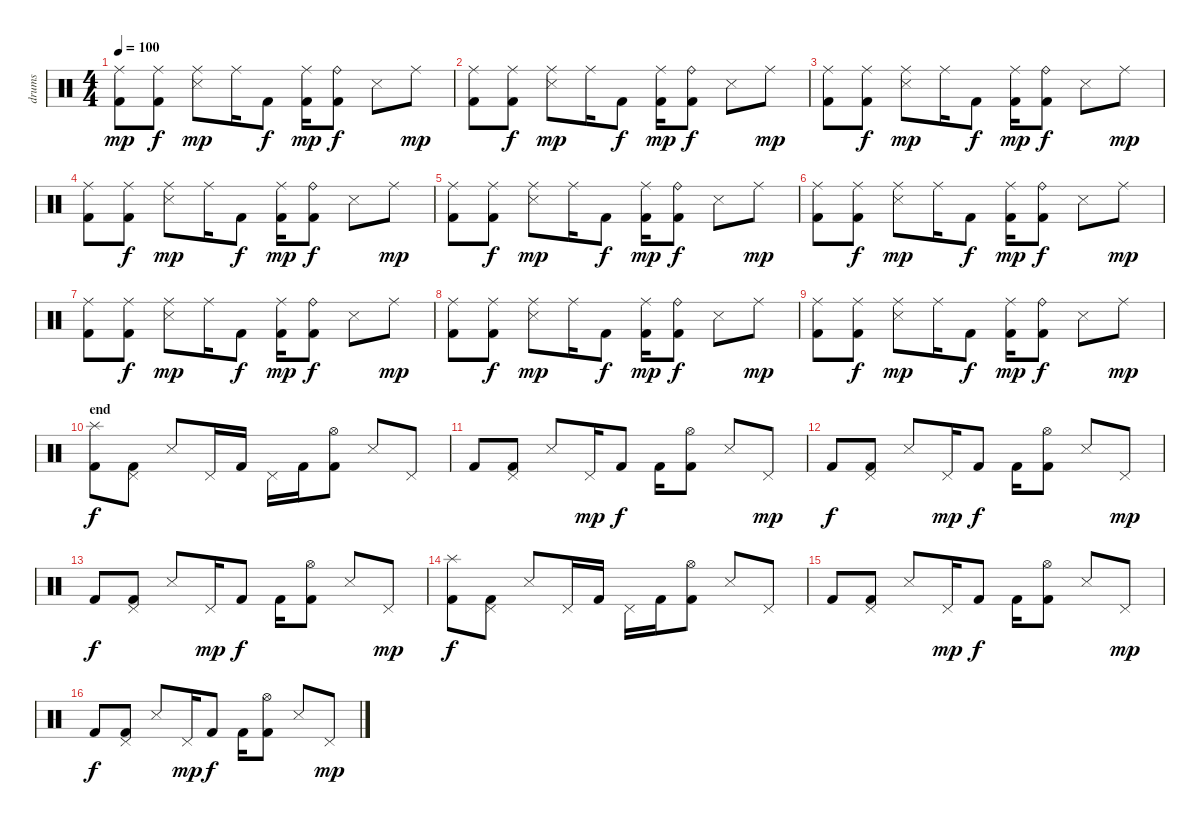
\track ("drums" "drums") {instrument percussion}
\staff {score}
\articulation defaults
\ts (4 4)
\tempo 100
\clef neutral
\ks c
("Ride (middle)" "Kick (hit) 2").8{dy mp} ("Ride (middle)" "Kick (hit) 2").8{dy f} ("Ride (middle)" "Snare (side stick) 3").8{dy mp} "Ride (middle)".16 "Kick (hit) 2".8{dy f} ("Ride (middle)" "Kick (hit) 2").16{dy mp} ("Ride (bell)" "Kick (hit) 2").8{dy f} "Snare (side stick) 3".8 "Ride (middle)".8{dy mp} |
("Ride (middle)" "Kick (hit) 2").8 ("Ride (middle)" "Kick (hit) 2").8{dy f} ("Ride (middle)" "Snare (side stick) 3").8{dy mp} "Ride (middle)".16 "Kick (hit) 2".8{dy f} ("Ride (middle)" "Kick (hit) 2").16{dy mp} ("Ride (bell)" "Kick (hit) 2").8{dy f} "Snare (side stick) 3".8 "Ride (middle)".8{dy mp} |
("Ride (middle)" "Kick (hit) 2").8 ("Ride (middle)" "Kick (hit) 2").8{dy f} ("Ride (middle)" "Snare (side stick) 3").8{dy mp} "Ride (middle)".16 "Kick (hit) 2".8{dy f} ("Ride (middle)" "Kick (hit) 2").16{dy mp} ("Ride (bell)" "Kick (hit) 2").8{dy f} "Snare (side stick) 3".8 "Ride (middle)".8{dy mp} |
("Ride (middle)" "Kick (hit) 2").8 ("Ride (middle)" "Kick (hit) 2").8{dy f} ("Ride (middle)" "Snare (side stick) 3").8{dy mp} "Ride (middle)".16 "Kick (hit) 2".8{dy f} ("Ride (middle)" "Kick (hit) 2").16{dy mp} ("Ride (bell)" "Kick (hit) 2").8{dy f} "Snare (side stick) 3".8 "Ride (middle)".8{dy mp} |
("Ride (middle)" "Kick (hit) 2").8 ("Ride (middle)" "Kick (hit) 2").8{dy f} ("Ride (middle)" "Snare (side stick) 3").8{dy mp} "Ride (middle)".16 "Kick (hit) 2".8{dy f} ("Ride (middle)" "Kick (hit) 2").16{dy mp} ("Ride (bell)" "Kick (hit) 2").8{dy f} "Snare (side stick) 3".8 "Ride (middle)".8{dy mp} |
("Ride (middle)" "Kick (hit) 2").8 ("Ride (middle)" "Kick (hit) 2").8{dy f} ("Ride (middle)" "Snare (side stick) 3").8{dy mp} "Ride (middle)".16 "Kick (hit) 2".8{dy f} ("Ride (middle)" "Kick (hit) 2").16{dy mp} ("Ride (bell)" "Kick (hit) 2").8{dy f} "Snare (side stick) 3".8 "Ride (middle)".8{dy mp} |
("Ride (middle)" "Kick (hit) 2").8 ("Ride (middle)" "Kick (hit) 2").8{dy f} ("Ride (middle)" "Snare (side stick) 3").8{dy mp} "Ride (middle)".16 "Kick (hit) 2".8{dy f} ("Ride (middle)" "Kick (hit) 2").16{dy mp} ("Ride (bell)" "Kick (hit) 2").8{dy f} "Snare (side stick) 3".8 "Ride (middle)".8{dy mp} |
("Ride (middle)" "Kick (hit) 2").8 ("Ride (middle)" "Kick (hit) 2").8{dy f} ("Ride (middle)" "Snare (side stick) 3").8{dy mp} "Ride (middle)".16 "Kick (hit) 2".8{dy f} ("Ride (middle)" "Kick (hit) 2").16{dy mp} ("Ride (bell)" "Kick (hit) 2").8{dy f} "Snare (side stick) 3".8 "Ride (middle)".8{dy mp} |
("Ride (middle)" "Kick (hit) 2").8 ("Ride (middle)" "Kick (hit) 2").8{dy f} ("Ride (middle)" "Snare (side stick) 3").8{dy mp} "Ride (middle)".16 "Kick (hit) 2".8{dy f} ("Ride (middle)" "Kick (hit) 2").16{dy mp} ("Ride (bell)" "Kick (hit) 2").8{dy f} "Snare (side stick) 3".8 "Ride (middle)".8{dy mp} |
\section ("" "end")
("Splash (hit)" "Kick (hit) 2").8{dy f} ("Pedal Hi-Hat (hit)" "Kick (hit) 2").8 "Snare (side stick) 3".8 "Pedal Hi-Hat (hit)".16 "Kick (hit) 2".16 "Pedal Hi-Hat (hit)".16 "Kick (hit) 2".16 ("Hi-Hat (open)" "Kick (hit) 2").8 "Snare (side stick) 3".8 "Pedal Hi-Hat (hit)".8 |
"Kick (hit) 2".8 ("Pedal Hi-Hat (hit)" "Kick (hit) 2").8 "Snare (side stick) 3".8 "Pedal Hi-Hat (hit)".16{dy mp} "Kick (hit) 2".8{dy f} "Kick (hit) 2".16 ("Hi-Hat (open)" "Kick (hit) 2").8 "Snare (side stick) 3".8 "Pedal Hi-Hat (hit)".8{dy mp} |
"Kick (hit) 2".8{dy f} ("Pedal Hi-Hat (hit)" "Kick (hit) 2").8 "Snare (side stick) 3".8 "Pedal Hi-Hat (hit)".16{dy mp} "Kick (hit) 2".8{dy f} "Kick (hit) 2".16 ("Hi-Hat (open)" "Kick (hit) 2").8 "Snare (side stick) 3".8 "Pedal Hi-Hat (hit)".8{dy mp} |
"Kick (hit) 2".8{dy f} ("Pedal Hi-Hat (hit)" "Kick (hit) 2").8 "Snare (side stick) 3".8 "Pedal Hi-Hat (hit)".16{dy mp} "Kick (hit) 2".8{dy f} "Kick (hit) 2".16 ("Hi-Hat (open)" "Kick (hit) 2").8 "Snare (side stick) 3".8 "Pedal Hi-Hat (hit)".8{dy mp} |
("Splash (hit)" "Kick (hit) 2").8{dy f} ("Pedal Hi-Hat (hit)" "Kick (hit) 2").8 "Snare (side stick) 3".8 "Pedal Hi-Hat (hit)".16 "Kick (hit) 2".16 "Pedal Hi-Hat (hit)".16 "Kick (hit) 2".16 ("Hi-Hat (open)" "Kick (hit) 2").8 "Snare (side stick) 3".8 "Pedal Hi-Hat (hit)".8 |
"Kick (hit) 2".8 ("Pedal Hi-Hat (hit)" "Kick (hit) 2").8 "Snare (side stick) 3".8 "Pedal Hi-Hat (hit)".16{dy mp} "Kick (hit) 2".8{dy f} "Kick (hit) 2".16 ("Hi-Hat (open)" "Kick (hit) 2").8 "Snare (side stick) 3".8 "Pedal Hi-Hat (hit)".8{dy mp} |
"Kick (hit) 2".8{dy f} ("Pedal Hi-Hat (hit)" "Kick (hit) 2").8 "Snare (side stick) 3".8 "Pedal Hi-Hat (hit)".16{dy mp} "Kick (hit) 2".8{dy f} "Kick (hit) 2".16 ("Hi-Hat (open)" "Kick (hit) 2").8 "Snare (side stick) 3".8 "Pedal Hi-Hat (hit)".8{dy mp}
